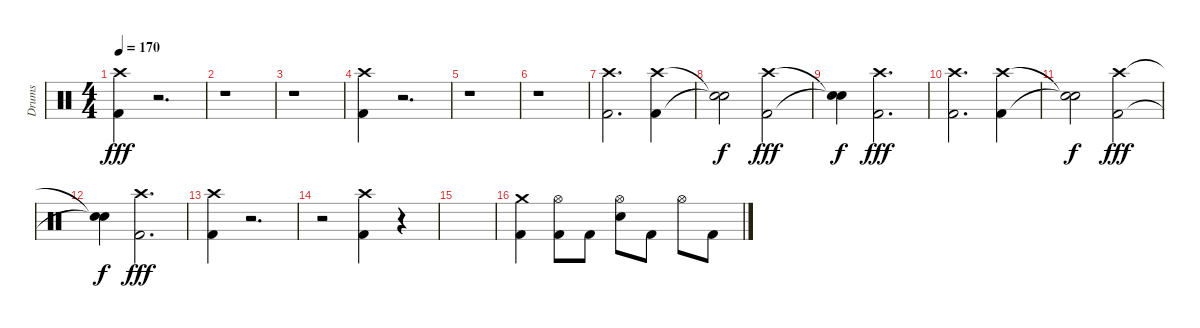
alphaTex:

\track ("Drums" "Drums") {instrument percussion}
\staff {score}
\articulation defaults
\ts (4 4)
\tempo 170
\clef neutral
\ks c
("Crash high (hit)" "Kick (hit) 2").4{dy fff} r.2{d volume 0} |
r.1 |
r.1 |
("Crash high (hit)" "Kick (hit) 2").4{volume 15} r.2{d volume 0} |
r.1 |
r.1 |
("Crash high (hit)" "Kick (hit) 2").2{d volume 15} ("Crash high (hit)" "Kick (hit) 2").4 |
("Snare (hit)"{t} "Snare (hit)"{t}).2{dy f} ("Crash high (hit)" "Kick (hit) 2").2{dy fff} |
("Snare (hit)"{t} "Snare (hit)"{t}).4{dy f} ("Crash high (hit)" "Kick (hit) 2").2{d dy fff} |
("Crash high (hit)" "Kick (hit) 2").2{d} ("Crash high (hit)" "Kick (hit) 2").4 |
("Snare (hit)"{t} "Snare (hit)"{t}).2{dy f} ("Crash high (hit)" "Kick (hit) 2").2{dy fff} |
("Snare (hit)"{t} "Snare (hit)"{t}).4{dy f} ("Crash high (hit)" "Kick (hit) 2").2{d dy fff} |
("Crash high (hit)" "Kick (hit) 2").4{volume 15} r.2{d volume 0} |
r.2 ("Crash high (hit)" "Kick (hit) 2").4{volume 15} r.4{volume 0} |
|
("Kick (hit) 2" "Crash medium (hit)").4{volume 15} ("Kick (hit) 2" "Hi-Hat (open)").8 "Kick (hit) 2".8 ("Snare (hit) 2" "Hi-Hat (open)").8 "Kick (hit) 2".8 "Hi-Hat (open)".8 "Kick (hit) 2".8
